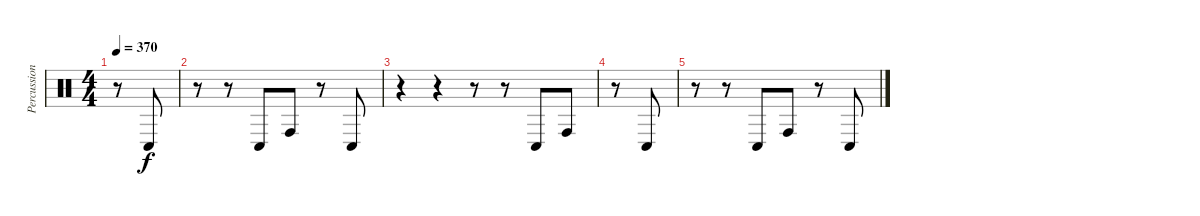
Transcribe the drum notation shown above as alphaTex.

\track ("Percussions" "Percussion") {instrument percussion}
\staff {score}
\articulation defaults
\ts (4 4)
\tempo 370
\clef neutral
\ks c
r.8{dy f} "Conga low (hit)".8 |
r.8 r.8 "Conga low (hit)".8 "Conga high (hit)".8 r.8 "Conga low (hit)".8 |
r.4 r.4 r.8 r.8 "Conga low (hit)".8 "Conga high (hit)".8 |
r.8 "Conga low (hit)".8 |
r.8 r.8 "Conga low (hit)".8 "Conga high (hit)".8 r.8 "Conga low (hit)".8
